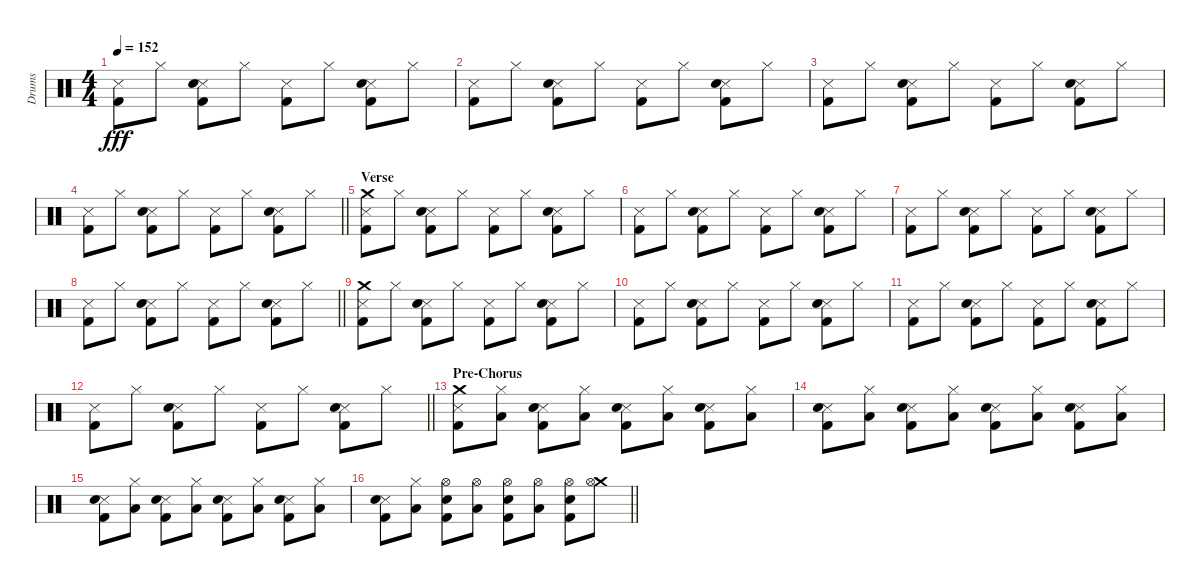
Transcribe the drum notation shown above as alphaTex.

\track ("Drums" "Drums") {instrument percussion}
\staff {score}
\articulation defaults
\ts (4 4)
\tempo 152
\clef neutral
\ks c
("Snare (side stick) 3" "Kick (hit) 2").8{dy fff} "Hi-Hat (closed)".8 ("Snare (side stick) 3" "Electric Snare (hit)" "Kick (hit) 2").8 "Hi-Hat (closed)".8 ("Snare (side stick) 3" "Kick (hit) 2").8 "Hi-Hat (closed)".8 ("Snare (side stick) 3" "Electric Snare (hit)" "Kick (hit) 2").8 "Hi-Hat (closed)".8 |
("Snare (side stick) 3" "Kick (hit) 2").8 "Hi-Hat (closed)".8 ("Snare (side stick) 3" "Electric Snare (hit)" "Kick (hit) 2").8 "Hi-Hat (closed)".8 ("Snare (side stick) 3" "Kick (hit) 2").8 "Hi-Hat (closed)".8 ("Snare (side stick) 3" "Electric Snare (hit)" "Kick (hit) 2").8 "Hi-Hat (closed)".8 |
("Snare (side stick) 3" "Kick (hit) 2").8 "Hi-Hat (closed)".8 ("Snare (side stick) 3" "Electric Snare (hit)" "Kick (hit) 2").8 "Hi-Hat (closed)".8 ("Snare (side stick) 3" "Kick (hit) 2").8 "Hi-Hat (closed)".8 ("Snare (side stick) 3" "Electric Snare (hit)" "Kick (hit) 2").8 "Hi-Hat (closed)".8 |
\barLineRight lightlight
("Snare (side stick) 3" "Kick (hit) 2").8 "Hi-Hat (closed)".8 ("Snare (side stick) 3" "Electric Snare (hit)" "Kick (hit) 2").8 "Hi-Hat (closed)".8 ("Snare (side stick) 3" "Kick (hit) 2").8 "Hi-Hat (closed)".8 ("Snare (side stick) 3" "Electric Snare (hit)" "Kick (hit) 2").8 "Hi-Hat (closed)".8 |
\section ("" "Verse")
("Crash medium (hit)" "Snare (side stick) 3" "Kick (hit) 2").8 "Hi-Hat (closed)".8 ("Snare (side stick) 3" "Electric Snare (hit)" "Kick (hit) 2").8 "Hi-Hat (closed)".8 ("Snare (side stick) 3" "Kick (hit) 2").8 "Hi-Hat (closed)".8 ("Snare (side stick) 3" "Electric Snare (hit)" "Kick (hit) 2").8 "Hi-Hat (closed)".8 |
("Snare (side stick) 3" "Kick (hit) 2").8 "Hi-Hat (closed)".8 ("Snare (side stick) 3" "Electric Snare (hit)" "Kick (hit) 2").8 "Hi-Hat (closed)".8 ("Snare (side stick) 3" "Kick (hit) 2").8 "Hi-Hat (closed)".8 ("Snare (side stick) 3" "Electric Snare (hit)" "Kick (hit) 2").8 "Hi-Hat (closed)".8 |
("Snare (side stick) 3" "Kick (hit) 2").8 "Hi-Hat (closed)".8 ("Snare (side stick) 3" "Electric Snare (hit)" "Kick (hit) 2").8 "Hi-Hat (closed)".8 ("Snare (side stick) 3" "Kick (hit) 2").8 "Hi-Hat (closed)".8 ("Snare (side stick) 3" "Electric Snare (hit)" "Kick (hit) 2").8 "Hi-Hat (closed)".8 |
\barLineRight lightlight
("Snare (side stick) 3" "Kick (hit) 2").8 "Hi-Hat (closed)".8 ("Snare (side stick) 3" "Electric Snare (hit)" "Kick (hit) 2").8 "Hi-Hat (closed)".8 ("Snare (side stick) 3" "Kick (hit) 2").8 "Hi-Hat (closed)".8 ("Snare (side stick) 3" "Electric Snare (hit)" "Kick (hit) 2").8 "Hi-Hat (closed)".8 |
("Crash medium (hit)" "Snare (side stick) 3" "Kick (hit) 2").8 "Hi-Hat (closed)".8 ("Snare (side stick) 3" "Electric Snare (hit)" "Kick (hit) 2").8 "Hi-Hat (closed)".8 ("Snare (side stick) 3" "Kick (hit) 2").8 "Hi-Hat (closed)".8 ("Snare (side stick) 3" "Electric Snare (hit)" "Kick (hit) 2").8 "Hi-Hat (closed)".8 |
("Snare (side stick) 3" "Kick (hit) 2").8 "Hi-Hat (closed)".8 ("Snare (side stick) 3" "Electric Snare (hit)" "Kick (hit) 2").8 "Hi-Hat (closed)".8 ("Snare (side stick) 3" "Kick (hit) 2").8 "Hi-Hat (closed)".8 ("Snare (side stick) 3" "Electric Snare (hit)" "Kick (hit) 2").8 "Hi-Hat (closed)".8 |
("Snare (side stick) 3" "Kick (hit) 2").8 "Hi-Hat (closed)".8 ("Snare (side stick) 3" "Electric Snare (hit)" "Kick (hit) 2").8 "Hi-Hat (closed)".8 ("Snare (side stick) 3" "Kick (hit) 2").8 "Hi-Hat (closed)".8 ("Snare (side stick) 3" "Electric Snare (hit)" "Kick (hit) 2").8 "Hi-Hat (closed)".8 |
\barLineRight lightlight
("Snare (side stick) 3" "Kick (hit) 2").8 "Hi-Hat (closed)".8 ("Snare (side stick) 3" "Electric Snare (hit)" "Kick (hit) 2").8 "Hi-Hat (closed)".8 ("Snare (side stick) 3" "Kick (hit) 2").8 "Hi-Hat (closed)".8 ("Snare (side stick) 3" "Electric Snare (hit)" "Kick (hit) 2").8 "Hi-Hat (closed)".8 |
\section ("" "Pre-Chorus")
("Crash medium (hit)" "Snare (side stick) 3" "Kick (hit) 2").8 ("Hi-Hat (closed)" "Low Floor Tom (hit)").8 ("Snare (side stick) 3" "Electric Snare (hit)" "Kick (hit) 2").8 ("Hi-Hat (closed)" "Low Floor Tom (hit)").8 ("Snare (side stick) 3" "Electric Snare (hit)" "Kick (hit) 2").8 ("Hi-Hat (closed)" "Low Floor Tom (hit)").8 ("Snare (side stick) 3" "Electric Snare (hit)" "Kick (hit) 2").8 ("Hi-Hat (closed)" "Low Floor Tom (hit)").8 |
("Snare (side stick) 3" "Electric Snare (hit)" "Kick (hit) 2").8 ("Hi-Hat (closed)" "Low Floor Tom (hit)").8 ("Snare (side stick) 3" "Electric Snare (hit)" "Kick (hit) 2").8 ("Hi-Hat (closed)" "Low Floor Tom (hit)").8 ("Snare (side stick) 3" "Electric Snare (hit)" "Kick (hit) 2").8 ("Hi-Hat (closed)" "Low Floor Tom (hit)").8 ("Snare (side stick) 3" "Electric Snare (hit)" "Kick (hit) 2").8 ("Hi-Hat (closed)" "Low Floor Tom (hit)").8 |
("Snare (side stick) 3" "Electric Snare (hit)" "Kick (hit) 2").8 ("Hi-Hat (closed)" "Low Floor Tom (hit)").8 ("Snare (side stick) 3" "Electric Snare (hit)" "Kick (hit) 2").8 ("Hi-Hat (closed)" "Low Floor Tom (hit)").8 ("Snare (side stick) 3" "Electric Snare (hit)" "Kick (hit) 2").8 ("Hi-Hat (closed)" "Low Floor Tom (hit)").8 ("Snare (side stick) 3" "Electric Snare (hit)" "Kick (hit) 2").8 ("Hi-Hat (closed)" "Low Floor Tom (hit)").8 |
\barLineRight lightlight
("Snare (side stick) 3" "Electric Snare (hit)" "Kick (hit) 2").8 ("Hi-Hat (closed)" "Low Floor Tom (hit)").8 ("Hi-Hat (open)" "Electric Snare (hit)" "Kick (hit) 2").8 ("Hi-Hat (open)" "Low Floor Tom (hit)").8 ("Hi-Hat (open)" "Electric Snare (hit)" "Kick (hit) 2").8 ("Hi-Hat (open)" "Low Floor Tom (hit)").8 ("Hi-Hat (open)" "Electric Snare (hit)" "Kick (hit) 2").8 ("Crash medium (hit)" "Hi-Hat (open)").8
